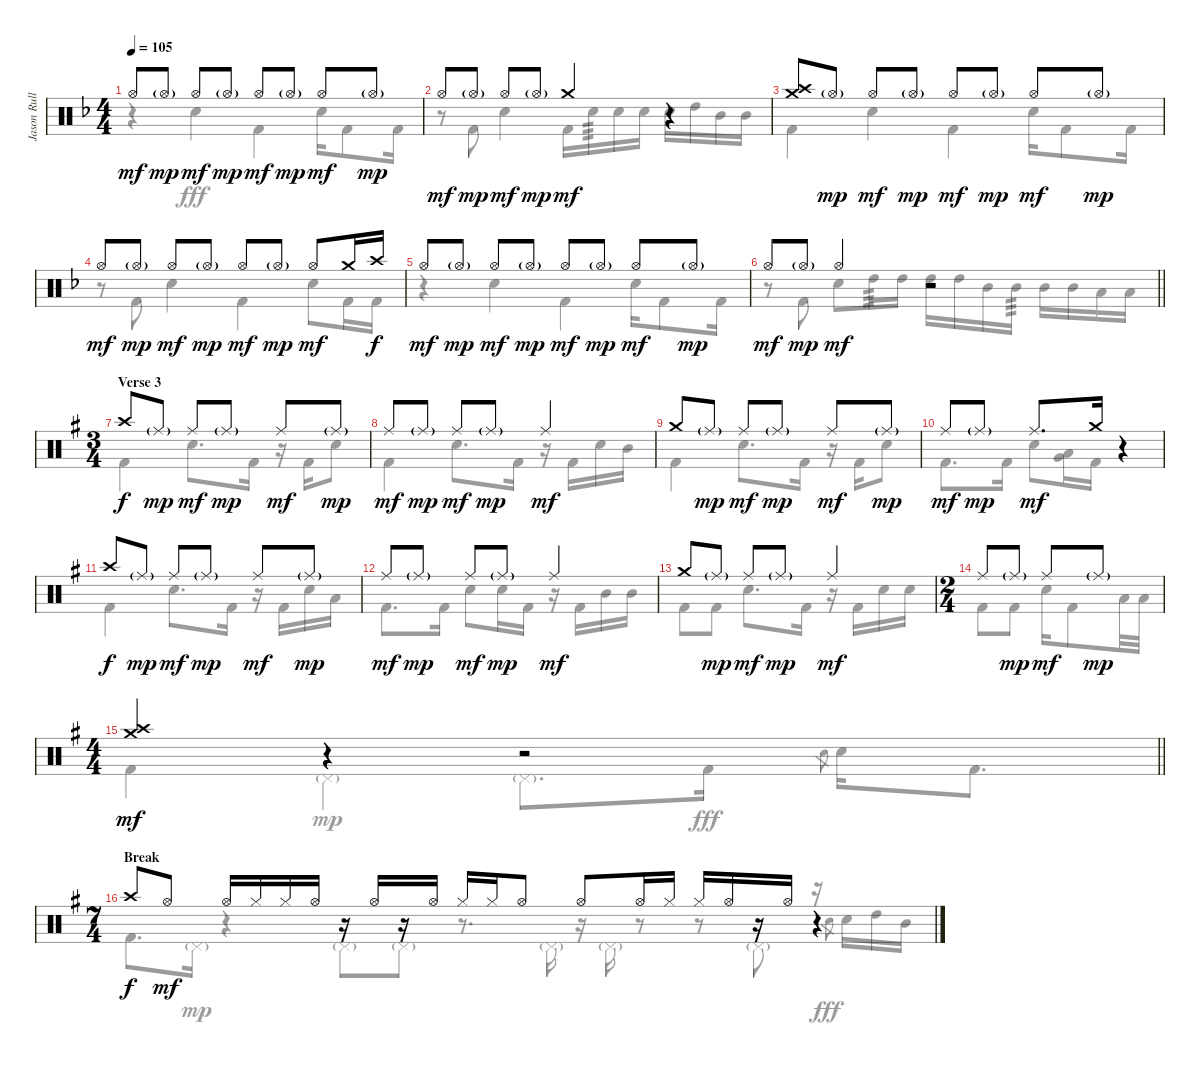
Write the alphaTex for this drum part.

\track ("Jason Rullo Drums" "Jason Rull") {instrument percussion}
\staff {score}
\articulation defaults
\voice
\ts (4 4)
\tempo 105
\clef neutral
\ks dminor "Hi-Hat (open)".8{dy mf} "Hi-Hat (open)"{g}.8{dy mp} "Hi-Hat (open)".8{dy mf} "Hi-Hat (open)"{g}.8{dy mp} "Hi-Hat (open)".8{dy mf} "Hi-Hat (open)"{g}.8{dy mp} "Hi-Hat (open)".8{dy mf} "Hi-Hat (open)"{g}.8{dy mp}
|
"Hi-Hat (open)".8{dy mf} "Hi-Hat (open)"{g}.8{dy mp} "Hi-Hat (open)".8{dy mf} "Hi-Hat (open)"{g}.8{dy mp} "Crash medium (hit)".4{dy mf} r.4 |
("Crash high (hit)" "Crash medium (hit)").8 "Hi-Hat (open)"{g}.8{dy mp} "Hi-Hat (open)".8{dy mf} "Hi-Hat (open)"{g}.8{dy mp} "Hi-Hat (open)".8{dy mf} "Hi-Hat (open)"{g}.8{dy mp} "Hi-Hat (open)".8{dy mf} "Hi-Hat (open)"{g}.8{dy mp} |
"Hi-Hat (open)".8{dy mf} "Hi-Hat (open)"{g}.8{dy mp} "Hi-Hat (open)".8{dy mf} "Hi-Hat (open)"{g}.8{dy mp} "Hi-Hat (open)".8{dy mf} "Hi-Hat (open)"{g}.8{dy mp} "Hi-Hat (open)".8{dy mf} "Crash medium (hit)".16 "Crash high (hit)".16{dy f} |
"Hi-Hat (open)".8{dy mf} "Hi-Hat (open)"{g}.8{dy mp} "Hi-Hat (open)".8{dy mf} "Hi-Hat (open)"{g}.8{dy mp} "Hi-Hat (open)".8{dy mf} "Hi-Hat (open)"{g}.8{dy mp} "Hi-Hat (open)".8{dy mf} "Hi-Hat (open)"{g}.8{dy mp} |
\barLineRight lightlight "Hi-Hat (open)".8{dy mf} "Hi-Hat (open)"{g}.8{dy mp} "Hi-Hat (open)".4{dy mf}
r.2 |
\ts (3 4)
\section ("" "Verse 3")
\ks eminor "Crash high (hit)".8{dy f} "Ride (middle)"{g}.8{dy mp} "Ride (middle)".8{dy mf} "Ride (middle)"{g}.8{dy mp} "Ride (middle)".8{dy mf} "Ride (middle)"{g}.8{dy mp}
|
"Ride (middle)".8{dy mf} "Ride (middle)"{g}.8{dy mp} "Ride (middle)".8{dy mf} "Ride (middle)"{g}.8{dy mp} "Ride (middle)".4{dy mf} |
"Crash medium (hit)".8 "Ride (middle)"{g}.8{dy mp} "Ride (middle)".8{dy mf} "Ride (middle)"{g}.8{dy mp} "Ride (middle)".8{dy mf} "Ride (middle)"{g}.8{dy mp} |
"Ride (middle)".8{dy mf} "Ride (middle)"{g}.8{dy mp} "Ride (middle)".8{d dy mf} "Crash medium (hit)".16 r.4 |
"Crash high (hit)".8{dy f} "Ride (middle)"{g}.8{dy mp} "Ride (middle)".8{dy mf} "Ride (middle)"{g}.8{dy mp} "Ride (middle)".8{dy mf} "Ride (middle)"{g}.8{dy mp} |
"Ride (middle)".8{dy mf} "Ride (middle)"{g}.8{dy mp} "Ride (middle)".8{dy mf} "Ride (middle)"{g}.8{dy mp} "Ride (middle)".4{dy mf} |
"Crash medium (hit)".8 "Ride (middle)"{g}.8{dy mp} "Ride (middle)".8{dy mf} "Ride (middle)"{g}.8{dy mp} "Ride (middle)".4{dy mf} |
\ts (2 4)
"Ride (middle)".8 "Ride (middle)"{g}.8{dy mp} "Ride (middle)".8{dy mf} "Ride (middle)"{g}.8{dy mp} |
\ts (4 4)
\barLineRight lightlight
("Crash high (hit)" "Crash medium (hit)").4{dy mf} r.4 r.2 |
\ts (7 4)
\section ("" "Break")
"Crash high (hit)".8{dy f} "Hi-Hat (open)".8{dy mf} "Hi-Hat (open)".16 "Hi-Hat (closed)".16 "Hi-Hat (closed)".16 "Hi-Hat (open)".16 r.16 "Hi-Hat (open)".16 r.16 "Hi-Hat (open)".16 "Hi-Hat (closed)".16 "Hi-Hat (closed)".16 "Hi-Hat (open)".8 "Hi-Hat (open)".8 "Hi-Hat (open)".16 "Hi-Hat (closed)".16 "Hi-Hat (closed)".16 "Hi-Hat (open)".16 r.16 "Hi-Hat (open)".16 r.4
\voice
\clef neutral
\ottava regular
\simile none
\ks dminor
r.4{dy fff} "Electric Snare (hit)".4 "Kick (hit) 2".4 "Electric Snare (hit)".16 "Kick (hit) 2".8 "Kick (hit) 2".16 |
r.8 "Kick (hit) 2".8 "Electric Snare (hit)".4 "Kick (hit) 2".16 "Electric Snare (hit)".16{tp 3} "Electric Snare (hit)".16 "Electric Snare (hit)".16 "Electric Snare (hit)".16 "High Tom (hit)".16 "Mid Tom (hit)".16 "Mid Tom (hit)".16 |
"Kick (hit) 2".4 "Electric Snare (hit)".4 "Kick (hit) 2".4 "Electric Snare (hit)".16 "Kick (hit) 2".8 "Kick (hit) 2".16 |
r.8 "Kick (hit) 2".8 "Electric Snare (hit)".4 "Kick (hit) 2".4 "Electric Snare (hit)".8 "Kick (hit) 2".16 "Kick (hit) 2".16 |
r.4 "Electric Snare (hit)".4 "Kick (hit) 2".4 "Electric Snare (hit)".16 "Kick (hit) 2".8 "Kick (hit) 2".16 |
\barLineRight lightlight
r.8 "Kick (hit) 2".8 "Electric Snare (hit)".8 "High Tom (hit)".16{tp 3} "High Tom (hit)".16 "High Tom (hit)".16 "High Tom (hit)".16 "Mid Tom (hit)".16 "Mid Tom (hit)".16{tp 3} "Mid Tom (hit)".16 "Mid Tom (hit)".16 "Low Tom (hit)".16 "Low Tom (hit)".16 |
\ks eminor "Kick (hit) 2".4 "Electric Snare (hit)".8{d} "Kick (hit) 2".16
r.16 "Kick (hit) 2".16 "Electric Snare (hit)".8 |
"Kick (hit) 2".4 "Electric Snare (hit)".8{d} "Kick (hit) 2".16 r.16 "Kick (hit) 2".16 "Electric Snare (hit)".16 "Mid Tom (hit)".16 |
"Kick (hit) 2".4 "Electric Snare (hit)".8{d} "Kick (hit) 2".16 r.16 "Kick (hit) 2".16 "Electric Snare (hit)".8 |
"Kick (hit) 2".8{d} "Kick (hit) 2".16 "Electric Snare (hit)".8 ("Low Tom (hit)" "Very Low Tom (hit)").16 "Kick (hit) 2".16 r.4 |
"Kick (hit) 2".4 "Electric Snare (hit)".8{d} "Kick (hit) 2".16 r.16 "Kick (hit) 2".16 "Electric Snare (hit)".16 "Low Tom (hit)".16 |
"Kick (hit) 2".8{d} "Kick (hit) 2".16 "Electric Snare (hit)".8 "Electric Snare (hit)".16 "Kick (hit) 2".16 r.16 "Kick (hit) 2".16 "Mid Tom (hit)".16 "Mid Tom (hit)".16 |
"Kick (hit) 2".8 "Kick (hit) 2".8 "Electric Snare (hit)".8{d} "Kick (hit) 2".16 r.16 "Kick (hit) 2".16 "Electric Snare (hit)".16 "Electric Snare (hit)".16 |
"Kick (hit) 2".8 "Kick (hit) 2".8 "Electric Snare (hit)".16 "Kick (hit) 2".8 "Low Tom (hit)".32 "Low Tom (hit)".32 |
\barLineRight lightlight "Kick (hit) 2".4 "Pedal Hi-Hat (hit)"{g}.4{dy mp} "Pedal Hi-Hat (hit)"{g}.8{d} "Kick (hit) 2".16{dy fff} "Electric Snare (hit)".8{gr} "Electric Snare (hit)".16 "Kick (hit) 2".8{d}
|
"Kick (hit) 2".8{d} "Pedal Hi-Hat (hit)"{g}.16{dy mp} r.4 "Pedal Hi-Hat (hit)"{g}.8 "Pedal Hi-Hat (hit)"{g}.8 r.8{d} "Pedal Hi-Hat (hit)"{g}.16 r.16 "Pedal Hi-Hat (hit)"{g}.16 r.8 r.8 "Pedal Hi-Hat (hit)"{g}.8 r.16 "Electric Snare (hit)".8{gr dy fff} "Electric Snare (hit)".16 "High Tom (hit)".16 "Mid Tom (hit)".16
